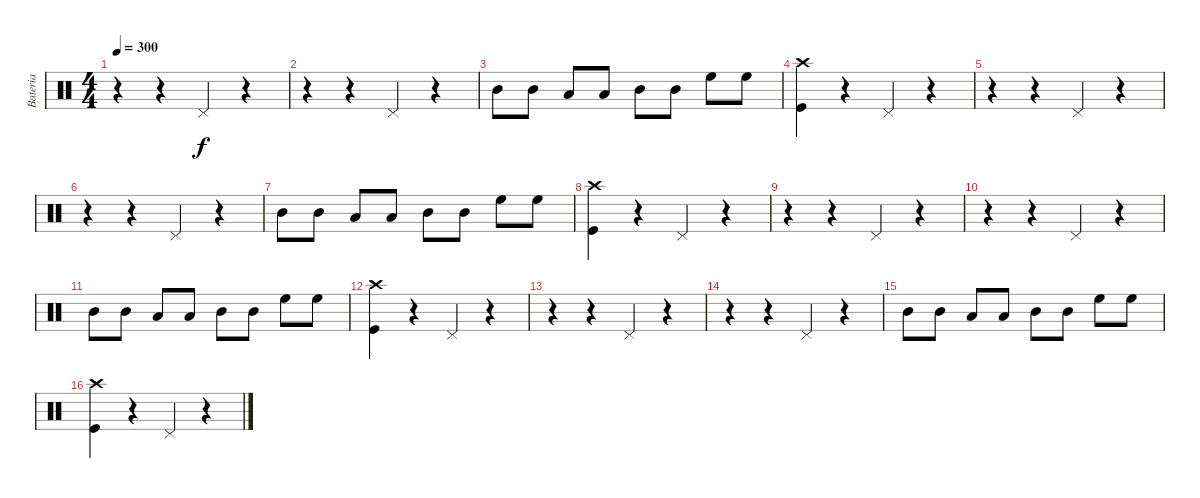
\track ("Bateria" "Bateria") {instrument percussion}
\staff {score}
\articulation defaults
\ts (4 4)
\tempo 300
\clef neutral
\ks c
r.4{dy f} r.4 "Pedal Hi-Hat (hit)".4 r.4 |
r.4 r.4 "Pedal Hi-Hat (hit)".4 r.4 |
"Mid Tom (hit)".8 "Mid Tom (hit)".8 "Low Tom (hit)".8 "Low Tom (hit)".8 "Mid Tom (hit)".8 "Mid Tom (hit)".8 "High Floor Tom (hit)".8 "High Floor Tom (hit)".8 |
("Crash high (hit)" "Kick (hit)").4 r.4 "Pedal Hi-Hat (hit)".4 r.4 |
r.4 r.4 "Pedal Hi-Hat (hit)".4 r.4 |
r.4 r.4 "Pedal Hi-Hat (hit)".4 r.4 |
"Mid Tom (hit)".8 "Mid Tom (hit)".8 "Low Tom (hit)".8 "Low Tom (hit)".8 "Mid Tom (hit)".8 "Mid Tom (hit)".8 "High Floor Tom (hit)".8 "High Floor Tom (hit)".8 |
("Crash high (hit)" "Kick (hit)").4 r.4 "Pedal Hi-Hat (hit)".4 r.4 |
r.4 r.4 "Pedal Hi-Hat (hit)".4 r.4 |
r.4 r.4 "Pedal Hi-Hat (hit)".4 r.4 |
"Mid Tom (hit)".8 "Mid Tom (hit)".8 "Low Tom (hit)".8 "Low Tom (hit)".8 "Mid Tom (hit)".8 "Mid Tom (hit)".8 "High Floor Tom (hit)".8 "High Floor Tom (hit)".8 |
("Crash high (hit)" "Kick (hit)").4 r.4 "Pedal Hi-Hat (hit)".4 r.4 |
r.4 r.4 "Pedal Hi-Hat (hit)".4 r.4 |
r.4 r.4 "Pedal Hi-Hat (hit)".4 r.4 |
"Mid Tom (hit)".8 "Mid Tom (hit)".8 "Low Tom (hit)".8 "Low Tom (hit)".8 "Mid Tom (hit)".8 "Mid Tom (hit)".8 "High Floor Tom (hit)".8 "High Floor Tom (hit)".8 |
("Crash high (hit)" "Kick (hit)").4 r.4 "Pedal Hi-Hat (hit)".4 r.4
